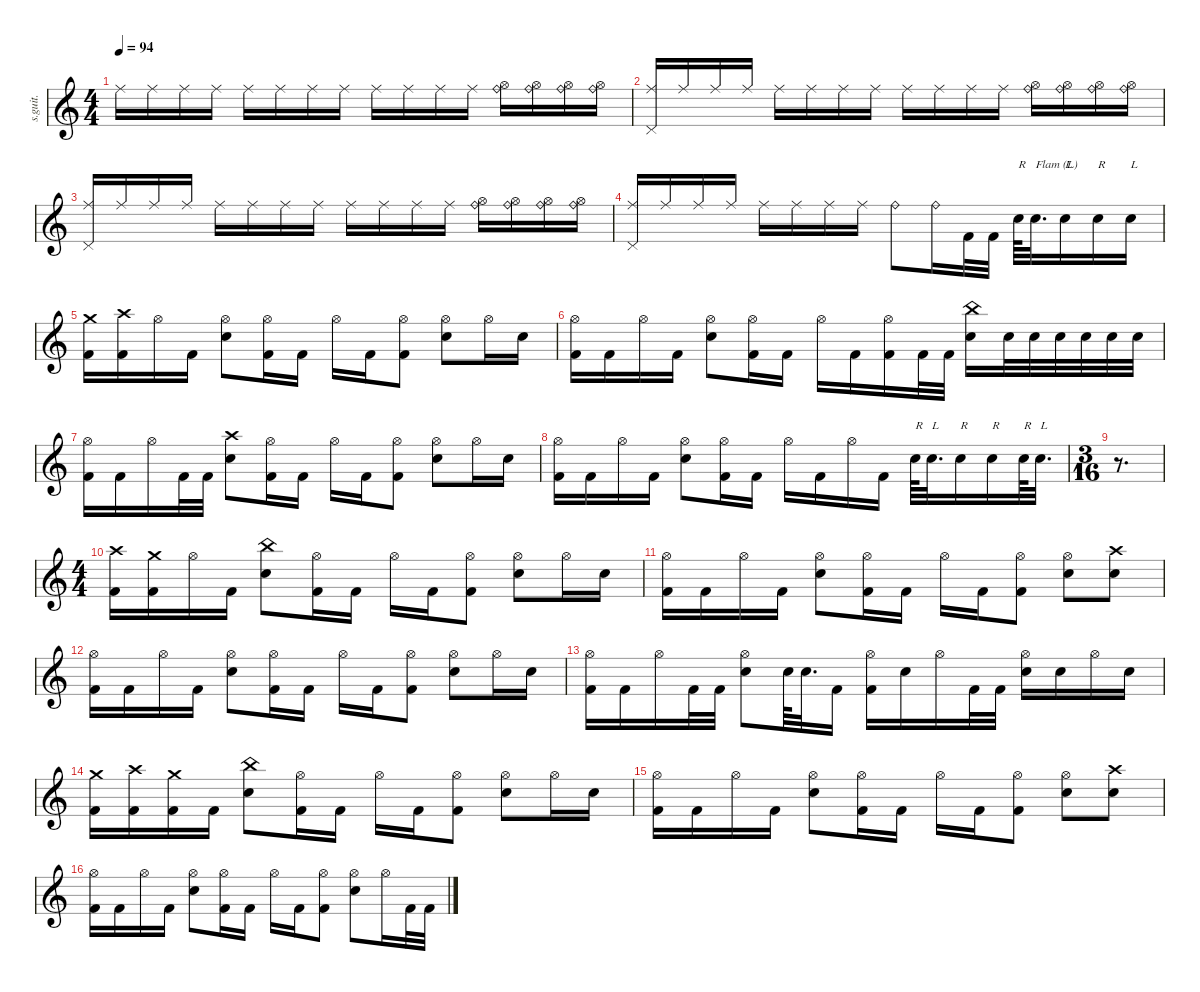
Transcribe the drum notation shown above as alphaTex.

\defaultSystemsLayout 4
\hideDynamics
\bracketExtendMode nobrackets
\track ("David Silveria" "s.guit.") {instrument percussion}
\staff {score}
\articulation defaults
\ts (4 4)
\tempo 94
\clef g2
\ks c "Ride (middle)".16{dy mf} "Ride (middle)".16 "Ride (middle)".16 "Ride (middle)".16 "Ride (middle)".16 "Ride (middle)".16 "Ride (middle)".16 "Ride (middle)".16 "Ride (middle)".16 "Ride (middle)".16 "Ride (middle)".16 "Ride (middle)".16
("Hi-Hat (open)" "Ride (bell)").16 ("Hi-Hat (open)" "Ride (bell)").16 ("Hi-Hat (open)" "Ride (bell)").16 ("Hi-Hat (open)" "Ride (bell)").16 |
("Ride (middle)" "Pedal Hi-Hat (hit)").16 "Ride (middle)".16 "Ride (middle)".16 "Ride (middle)".16 "Ride (middle)".16 "Ride (middle)".16 "Ride (middle)".16 "Ride (middle)".16 "Ride (middle)".16 "Ride (middle)".16 "Ride (middle)".16 "Ride (middle)".16 ("Hi-Hat (open)" "Ride (bell)").16 ("Hi-Hat (open)" "Ride (bell)").16 ("Hi-Hat (open)" "Ride (bell)").16 ("Hi-Hat (open)" "Ride (bell)").16 |
("Ride (middle)" "Pedal Hi-Hat (hit)").16 "Ride (middle)".16 "Ride (middle)".16 "Ride (middle)".16 "Ride (middle)".16 "Ride (middle)".16 "Ride (middle)".16 "Ride (middle)".16 "Ride (middle)".16 "Ride (middle)".16 "Ride (middle)".16 "Ride (middle)".16 ("Hi-Hat (open)" "Ride (bell)").16 ("Hi-Hat (open)" "Ride (bell)").16 ("Hi-Hat (open)" "Ride (bell)").16 ("Hi-Hat (open)" "Ride (bell)").16 |
("Ride (middle)" "Pedal Hi-Hat (hit)").16 "Ride (middle)".16 "Ride (middle)".16 "Ride (middle)".16 "Ride (middle)".16 "Ride (middle)".16 "Ride (middle)".16 "Ride (middle)".16 "Ride (bell)".8 "Ride (bell)".16 "Kick (hit) 2".32{dy f} "Kick (hit) 2".32 "Snare (hit) 2".64{txt "R"} "Snare (hit) 2".32{d txt "Flam (L)"} "Snare (hit) 2".16{txt "L"} "Snare (hit) 2".16{txt "R"} "Snare (hit) 2".16{txt "L"} |
("Kick (hit) 2" "Crash medium (hit)").16{dy fff} ("Kick (hit) 2" "Crash high (hit)").16{dy ff} "Hi-Hat (open)".16{dy f} "Kick (hit) 2".16 ("Hi-Hat (open)" "Snare (hit) 2").8 ("Hi-Hat (open)" "Kick (hit) 2").16 "Kick (hit) 2".16 "Hi-Hat (open)".16 "Kick (hit) 2".16 ("Hi-Hat (open)" "Kick (hit) 2").8 ("Hi-Hat (open)" "Snare (hit) 2").8 "Hi-Hat (open)".16 "Snare (hit) 2".16 |
("Kick (hit) 2" "Hi-Hat (open)").16 "Kick (hit) 2".16 "Hi-Hat (open)".16 "Kick (hit) 2".16 ("Hi-Hat (open)" "Snare (hit) 2").8 ("Hi-Hat (open)" "Kick (hit) 2").16 "Kick (hit) 2".16 "Hi-Hat (open)".16 "Kick (hit) 2".16 ("Hi-Hat (open)" "Kick (hit) 2").16 "Kick (hit) 2".32 "Kick (hit) 2".32 ("Snare (hit) 2" "China (hit)").16 "Snare (hit) 2".32 "Snare (hit) 2".32 "Snare (hit) 2".32 "Snare (hit) 2".32 "Snare (hit) 2".32 "Snare (hit) 2".32 |
("Hi-Hat (open)" "Kick (hit) 2").16 "Kick (hit) 2".16 "Hi-Hat (open)".16 "Kick (hit) 2".32 "Kick (hit) 2".32 ("Snare (hit) 2" "Crash high (hit)").8 ("Hi-Hat (open)" "Kick (hit) 2").16 "Kick (hit) 2".16 "Hi-Hat (open)".16 "Kick (hit) 2".16 ("Hi-Hat (open)" "Kick (hit) 2").8 ("Hi-Hat (open)" "Snare (hit) 2").8 "Hi-Hat (open)".16 "Snare (hit) 2".16 |
("Kick (hit) 2" "Hi-Hat (open)").16 "Kick (hit) 2".16 "Hi-Hat (open)".16 "Kick (hit) 2".16 ("Hi-Hat (open)" "Snare (hit) 2").8 ("Hi-Hat (open)" "Kick (hit) 2").16 "Kick (hit) 2".16 "Hi-Hat (open)".16 "Kick (hit) 2".16 "Hi-Hat (open)".16 "Kick (hit) 2".16 "Snare (hit) 2".64{txt "R"} "Snare (hit) 2".32{d txt "L"} "Snare (hit) 2".16{txt "R"} "Snare (hit) 2".16{txt "R"} "Snare (hit) 2".64{txt "R"} "Snare (hit) 2".32{d txt "L"} |
\ts (3 16)
\beaming (8 2 2 2 2)
r.8{d} |
\ts (4 4)
\beaming (8 2 2 2 2)
("Kick (hit) 2" "Crash high (hit)").16 ("Kick (hit) 2" "Crash medium (hit)").16 "Hi-Hat (open)".16 "Kick (hit) 2".16 ("China (hit)" "Snare (hit) 2").8 ("Hi-Hat (open)" "Kick (hit) 2").16 "Kick (hit) 2".16 "Hi-Hat (open)".16 "Kick (hit) 2".16 ("Hi-Hat (open)" "Kick (hit) 2").8 ("Hi-Hat (open)" "Snare (hit) 2").8 "Hi-Hat (open)".16 "Snare (hit) 2".16 |
("Kick (hit) 2" "Hi-Hat (open)").16 "Kick (hit) 2".16 "Hi-Hat (open)".16 "Kick (hit) 2".16 ("Hi-Hat (open)" "Snare (hit) 2").8 ("Hi-Hat (open)" "Kick (hit) 2").16 "Kick (hit) 2".16 "Hi-Hat (open)".16 "Kick (hit) 2".16 ("Hi-Hat (open)" "Kick (hit) 2").8 ("Hi-Hat (open)" "Snare (hit) 2").8 ("Snare (hit) 2" "Crash high (hit)").8 |
("Kick (hit) 2" "Hi-Hat (open)").16 "Kick (hit) 2".16 "Hi-Hat (open)".16 "Kick (hit) 2".16 ("Hi-Hat (open)" "Snare (hit) 2").8 ("Hi-Hat (open)" "Kick (hit) 2").16 "Kick (hit) 2".16 "Hi-Hat (open)".16 "Kick (hit) 2".16 ("Hi-Hat (open)" "Kick (hit) 2").8 ("Hi-Hat (open)" "Snare (hit) 2").8 "Hi-Hat (open)".16 "Snare (hit) 2".16 |
("Kick (hit) 2" "Hi-Hat (open)").16 "Kick (hit) 2".16 "Hi-Hat (open)".16 "Kick (hit) 2".32 "Kick (hit) 2".32 ("Hi-Hat (open)" "Snare (hit) 2").8 "Snare (hit) 2".64 "Snare (hit) 2".32{d} "Kick (hit) 2".16 ("Hi-Hat (open)" "Kick (hit) 2").16 "Snare (hit) 2".16 "Hi-Hat (open)".16 "Kick (hit) 2".32 "Kick (hit) 2".32 ("Hi-Hat (open)" "Snare (hit) 2").16 "Snare (hit) 2".16 "Hi-Hat (open)".16 "Snare (hit) 2".16 |
("Crash medium (hit)" "Kick (hit) 2").16 ("Crash high (hit)" "Kick (hit) 2").16 ("Crash medium (hit)" "Kick (hit) 2").16 "Kick (hit) 2".16 ("Snare (hit) 2" "China (hit)").8 ("Hi-Hat (open)" "Kick (hit) 2").16 "Kick (hit) 2".16 "Hi-Hat (open)".16 "Kick (hit) 2".16 ("Hi-Hat (open)" "Kick (hit) 2").8 ("Hi-Hat (open)" "Snare (hit) 2").8 "Hi-Hat (open)".16 "Snare (hit) 2".16 |
("Kick (hit) 2" "Hi-Hat (open)").16 "Kick (hit) 2".16 "Hi-Hat (open)".16 "Kick (hit) 2".16 ("Hi-Hat (open)" "Snare (hit) 2").8 ("Hi-Hat (open)" "Kick (hit) 2").16 "Kick (hit) 2".16 "Hi-Hat (open)".16 "Kick (hit) 2".16 ("Hi-Hat (open)" "Kick (hit) 2").8 ("Hi-Hat (open)" "Snare (hit) 2").8 ("Snare (hit) 2" "Crash high (hit)").8 |
("Kick (hit) 2" "Hi-Hat (open)").16 "Kick (hit) 2".16 "Hi-Hat (open)".16 "Kick (hit) 2".16 ("Hi-Hat (open)" "Snare (hit) 2").8 ("Hi-Hat (open)" "Kick (hit) 2").16 "Kick (hit) 2".16 "Hi-Hat (open)".16 "Kick (hit) 2".16 ("Hi-Hat (open)" "Kick (hit) 2").8 ("Hi-Hat (open)" "Snare (hit) 2").8 "Hi-Hat (open)".16 "Kick (hit) 2".32 "Kick (hit) 2".32
